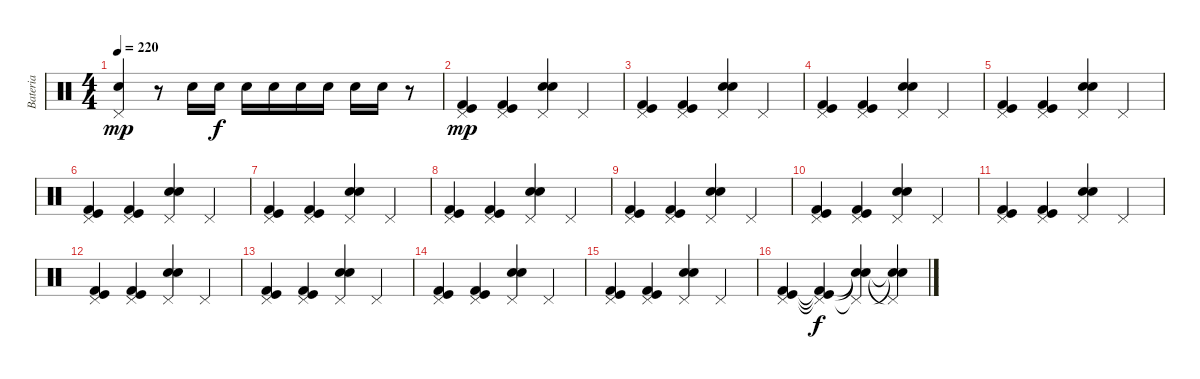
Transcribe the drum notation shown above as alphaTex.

\track ("Bateria" "Bateria") {instrument percussion}
\staff {score}
\articulation defaults
\ts (4 4)
\tempo 220
\clef neutral
\ks c
("Pedal Hi-Hat (hit)" "Snare (hit) 2").4{dy mp} r.8 "Electric Snare (hit)".16 "Electric Snare (hit)".16{dy f} "Electric Snare (hit)".16 "Electric Snare (hit)".16 "Electric Snare (hit)".16 "Electric Snare (hit)".16 "Electric Snare (hit)".16 "Electric Snare (hit)".16 r.8 |
("Pedal Hi-Hat (hit)" "Kick (hit) 2" "Kick (hit)").4{dy mp} ("Pedal Hi-Hat (hit)" "Kick (hit) 2" "Kick (hit)").4 ("Pedal Hi-Hat (hit)" "Snare (hit) 2" "Electric Snare (hit)").4 "Pedal Hi-Hat (hit)".4 |
("Pedal Hi-Hat (hit)" "Kick (hit) 2" "Kick (hit)").4 ("Pedal Hi-Hat (hit)" "Kick (hit) 2" "Kick (hit)").4 ("Pedal Hi-Hat (hit)" "Snare (hit) 2" "Electric Snare (hit)").4 "Pedal Hi-Hat (hit)".4 |
("Pedal Hi-Hat (hit)" "Kick (hit) 2" "Kick (hit)").4 ("Pedal Hi-Hat (hit)" "Kick (hit) 2" "Kick (hit)").4 ("Pedal Hi-Hat (hit)" "Snare (hit) 2" "Electric Snare (hit)").4 "Pedal Hi-Hat (hit)".4 |
("Pedal Hi-Hat (hit)" "Kick (hit) 2" "Kick (hit)").4 ("Pedal Hi-Hat (hit)" "Kick (hit) 2" "Kick (hit)").4 ("Pedal Hi-Hat (hit)" "Snare (hit) 2" "Electric Snare (hit)").4 "Pedal Hi-Hat (hit)".4 |
("Pedal Hi-Hat (hit)" "Kick (hit) 2" "Kick (hit)").4 ("Pedal Hi-Hat (hit)" "Kick (hit) 2" "Kick (hit)").4 ("Pedal Hi-Hat (hit)" "Snare (hit) 2" "Electric Snare (hit)").4 "Pedal Hi-Hat (hit)".4 |
("Pedal Hi-Hat (hit)" "Kick (hit) 2" "Kick (hit)").4 ("Pedal Hi-Hat (hit)" "Kick (hit) 2" "Kick (hit)").4 ("Pedal Hi-Hat (hit)" "Snare (hit) 2" "Electric Snare (hit)").4 "Pedal Hi-Hat (hit)".4 |
("Pedal Hi-Hat (hit)" "Kick (hit) 2" "Kick (hit)").4 ("Pedal Hi-Hat (hit)" "Kick (hit) 2" "Kick (hit)").4 ("Pedal Hi-Hat (hit)" "Snare (hit) 2" "Electric Snare (hit)").4 "Pedal Hi-Hat (hit)".4 |
("Pedal Hi-Hat (hit)" "Kick (hit) 2" "Kick (hit)").4 ("Pedal Hi-Hat (hit)" "Kick (hit) 2" "Kick (hit)").4 ("Pedal Hi-Hat (hit)" "Snare (hit) 2" "Electric Snare (hit)").4 "Pedal Hi-Hat (hit)".4 |
("Pedal Hi-Hat (hit)" "Kick (hit) 2" "Kick (hit)").4 ("Pedal Hi-Hat (hit)" "Kick (hit) 2" "Kick (hit)").4 ("Pedal Hi-Hat (hit)" "Snare (hit) 2" "Electric Snare (hit)").4 "Pedal Hi-Hat (hit)".4 |
("Pedal Hi-Hat (hit)" "Kick (hit) 2" "Kick (hit)").4 ("Pedal Hi-Hat (hit)" "Kick (hit) 2" "Kick (hit)").4 ("Pedal Hi-Hat (hit)" "Snare (hit) 2" "Electric Snare (hit)").4 "Pedal Hi-Hat (hit)".4 |
("Pedal Hi-Hat (hit)" "Kick (hit) 2" "Kick (hit)").4 ("Pedal Hi-Hat (hit)" "Kick (hit) 2" "Kick (hit)").4 ("Pedal Hi-Hat (hit)" "Snare (hit) 2" "Electric Snare (hit)").4 "Pedal Hi-Hat (hit)".4 |
("Pedal Hi-Hat (hit)" "Kick (hit) 2" "Kick (hit)").4 ("Pedal Hi-Hat (hit)" "Kick (hit) 2" "Kick (hit)").4 ("Pedal Hi-Hat (hit)" "Snare (hit) 2" "Electric Snare (hit)").4 "Pedal Hi-Hat (hit)".4 |
("Pedal Hi-Hat (hit)" "Kick (hit) 2" "Kick (hit)").4 ("Pedal Hi-Hat (hit)" "Kick (hit) 2" "Kick (hit)").4 ("Pedal Hi-Hat (hit)" "Snare (hit) 2" "Electric Snare (hit)").4 "Pedal Hi-Hat (hit)".4 |
("Pedal Hi-Hat (hit)" "Kick (hit) 2" "Kick (hit)").4 ("Pedal Hi-Hat (hit)" "Kick (hit) 2" "Kick (hit)").4 ("Pedal Hi-Hat (hit)" "Snare (hit) 2" "Electric Snare (hit)").4 "Pedal Hi-Hat (hit)".4 |
("Pedal Hi-Hat (hit)" "Kick (hit) 2" "Kick (hit)").4 ("Pedal Hi-Hat (hit)"{t} "Kick (hit) 2"{t} "Kick (hit)"{t}).4{dy f} ("Pedal Hi-Hat (hit)"{t} "Snare (hit) 2"{t} "Electric Snare (hit)"{t}).4 ("Snare (hit)"{t} "Snare (hit)"{t} "Pedal Hi-Hat (hit)"{t}).4
